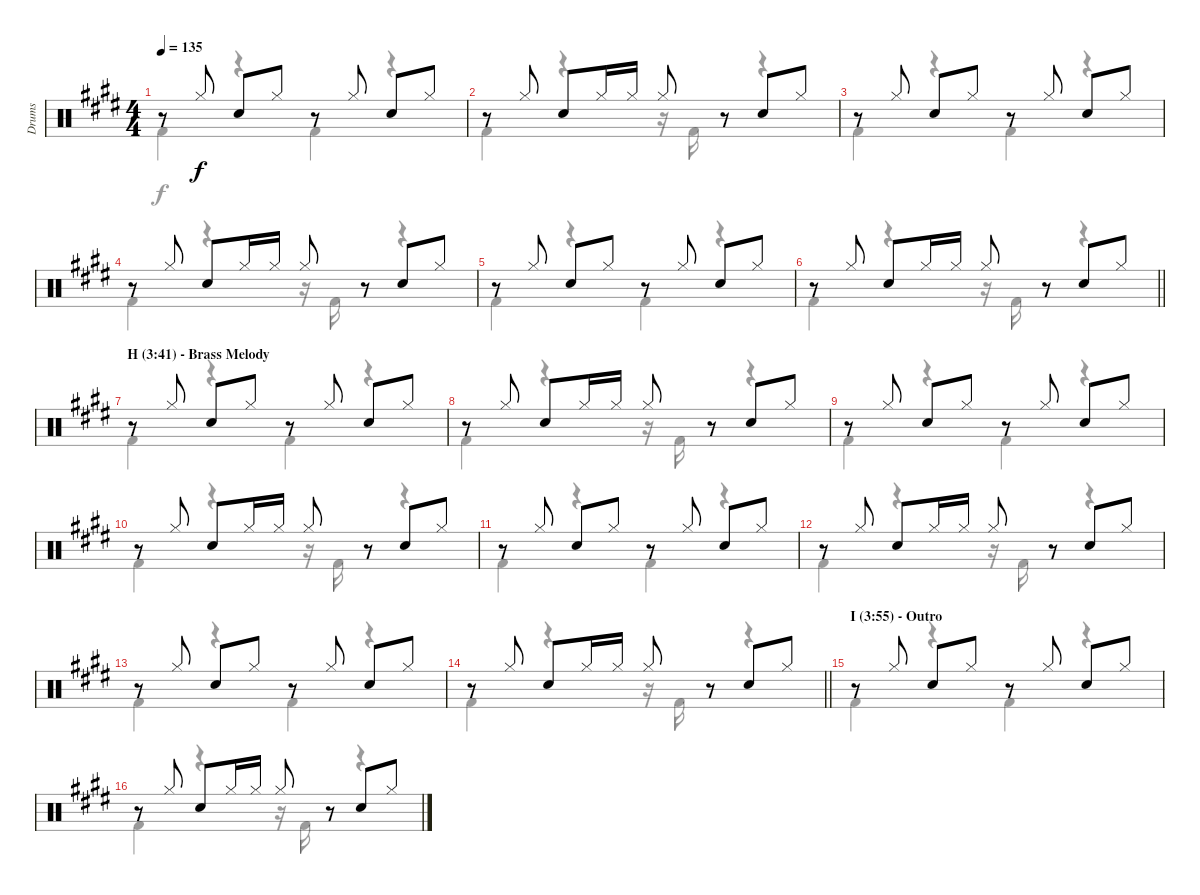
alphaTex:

\track ("Drums" "Drums") {instrument percussion}
\staff {score}
\articulation defaults
\voice
\ts (4 4)
\tempo 135
\clef neutral
\ks c#minor
r.8{dy f} "Hi-Hat (closed)".8 "Snare (hit) 2".8 "Hi-Hat (closed)".8 r.8 "Hi-Hat (closed)".8 "Snare (hit) 2".8 "Hi-Hat (closed)".8 |
r.8 "Hi-Hat (closed)".8 "Snare (hit) 2".8 "Hi-Hat (closed)".16 "Hi-Hat (closed)".16 "Hi-Hat (closed)".8 r.8 "Snare (hit) 2".8 "Hi-Hat (closed)".8 |
r.8 "Hi-Hat (closed)".8 "Snare (hit) 2".8 "Hi-Hat (closed)".8 r.8 "Hi-Hat (closed)".8 "Snare (hit) 2".8 "Hi-Hat (closed)".8 |
r.8 "Hi-Hat (closed)".8 "Snare (hit) 2".8 "Hi-Hat (closed)".16 "Hi-Hat (closed)".16 "Hi-Hat (closed)".8 r.8 "Snare (hit) 2".8 "Hi-Hat (closed)".8 |
r.8 "Hi-Hat (closed)".8 "Snare (hit) 2".8 "Hi-Hat (closed)".8 r.8 "Hi-Hat (closed)".8 "Snare (hit) 2".8 "Hi-Hat (closed)".8 |
\barLineRight lightlight
r.8 "Hi-Hat (closed)".8 "Snare (hit) 2".8 "Hi-Hat (closed)".16 "Hi-Hat (closed)".16 "Hi-Hat (closed)".8 r.8 "Snare (hit) 2".8 "Hi-Hat (closed)".8 |
\section ("" "H (3:41) - Brass Melody")
r.8 "Hi-Hat (closed)".8 "Snare (hit) 2".8 "Hi-Hat (closed)".8 r.8 "Hi-Hat (closed)".8 "Snare (hit) 2".8 "Hi-Hat (closed)".8 |
r.8 "Hi-Hat (closed)".8 "Snare (hit) 2".8 "Hi-Hat (closed)".16 "Hi-Hat (closed)".16 "Hi-Hat (closed)".8 r.8 "Snare (hit) 2".8 "Hi-Hat (closed)".8 |
r.8 "Hi-Hat (closed)".8 "Snare (hit) 2".8 "Hi-Hat (closed)".8 r.8 "Hi-Hat (closed)".8 "Snare (hit) 2".8 "Hi-Hat (closed)".8 |
r.8 "Hi-Hat (closed)".8 "Snare (hit) 2".8 "Hi-Hat (closed)".16 "Hi-Hat (closed)".16 "Hi-Hat (closed)".8 r.8 "Snare (hit) 2".8 "Hi-Hat (closed)".8 |
r.8 "Hi-Hat (closed)".8 "Snare (hit) 2".8 "Hi-Hat (closed)".8 r.8 "Hi-Hat (closed)".8 "Snare (hit) 2".8 "Hi-Hat (closed)".8 |
r.8 "Hi-Hat (closed)".8 "Snare (hit) 2".8 "Hi-Hat (closed)".16 "Hi-Hat (closed)".16 "Hi-Hat (closed)".8 r.8 "Snare (hit) 2".8 "Hi-Hat (closed)".8 |
r.8 "Hi-Hat (closed)".8 "Snare (hit) 2".8 "Hi-Hat (closed)".8 r.8 "Hi-Hat (closed)".8 "Snare (hit) 2".8 "Hi-Hat (closed)".8 |
\barLineRight lightlight
r.8 "Hi-Hat (closed)".8 "Snare (hit) 2".8 "Hi-Hat (closed)".16 "Hi-Hat (closed)".16 "Hi-Hat (closed)".8 r.8 "Snare (hit) 2".8 "Hi-Hat (closed)".8 |
\section ("" "I (3:55) - Outro")
r.8 "Hi-Hat (closed)".8 "Snare (hit) 2".8 "Hi-Hat (closed)".8 r.8 "Hi-Hat (closed)".8 "Snare (hit) 2".8 "Hi-Hat (closed)".8 |
r.8 "Hi-Hat (closed)".8 "Snare (hit) 2".8 "Hi-Hat (closed)".16 "Hi-Hat (closed)".16 "Hi-Hat (closed)".8 r.8 "Snare (hit) 2".8 "Hi-Hat (closed)".8
\voice
\clef neutral
\ottava regular
\simile none
\ks c#minor "Kick (hit) 2".4{dy f}
r.4 "Kick (hit) 2".4 r.4 |
"Kick (hit) 2".4 r.4 r.16 "Kick (hit) 2".16 r.8 r.4 |
"Kick (hit) 2".4 r.4 "Kick (hit) 2".4 r.4 |
"Kick (hit) 2".4 r.4 r.16 "Kick (hit) 2".16 r.8 r.4 |
"Kick (hit) 2".4 r.4 "Kick (hit) 2".4 r.4 |
\barLineRight lightlight "Kick (hit) 2".4
r.4 r.16 "Kick (hit) 2".16 r.8 r.4 |
"Kick (hit) 2".4 r.4 "Kick (hit) 2".4 r.4 |
"Kick (hit) 2".4 r.4 r.16 "Kick (hit) 2".16 r.8 r.4 |
"Kick (hit) 2".4 r.4 "Kick (hit) 2".4 r.4 |
"Kick (hit) 2".4 r.4 r.16 "Kick (hit) 2".16 r.8 r.4 |
"Kick (hit) 2".4 r.4 "Kick (hit) 2".4 r.4 |
"Kick (hit) 2".4 r.4 r.16 "Kick (hit) 2".16 r.8 r.4 |
"Kick (hit) 2".4 r.4 "Kick (hit) 2".4 r.4 |
\barLineRight lightlight "Kick (hit) 2".4
r.4 r.16 "Kick (hit) 2".16 r.8 r.4 |
"Kick (hit) 2".4 r.4 "Kick (hit) 2".4 r.4 |
"Kick (hit) 2".4 r.4 r.16 "Kick (hit) 2".16 r.8 r.4
